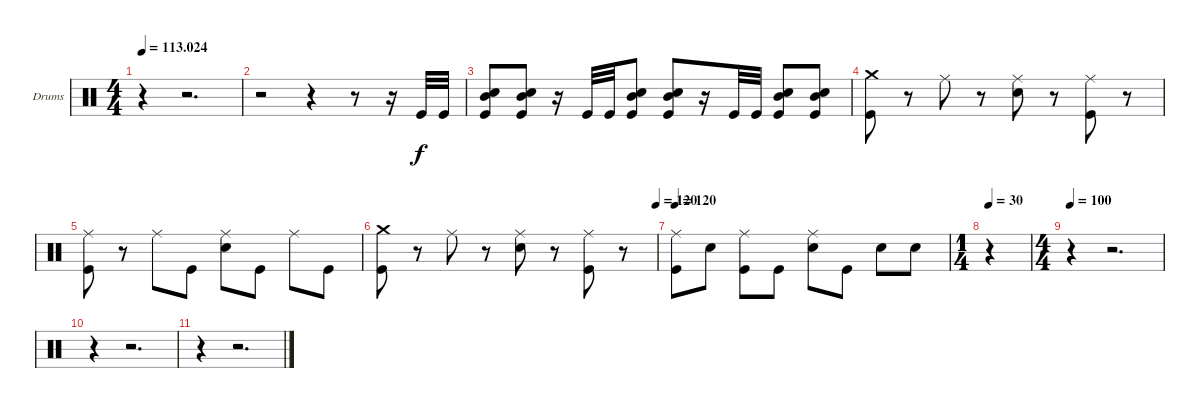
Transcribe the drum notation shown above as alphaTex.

\bracketExtendMode groupsimilarinstruments
\firstSystemTrackNameOrientation horizontal
\otherSystemsTrackNameOrientation horizontal
\track ("Ударные (Кривенков Д)" "Drums") {instrument percussion}
\staff {score}
\articulation defaults
\voice
\ts (4 4)
\tempo
113.024
\accidentals auto
\clef neutral
\ottava regular
\simile none
\ks c
r.4{dy f} r.2{d} |
r.2 r.4 r.8 r.16 "Kick (hit)".32 "Kick (hit)".32 |
("Mid Tom (hit)" "Snare (hit) 2" "Kick (hit)").8 ("Mid Tom (hit)" "Snare (hit) 2" "Kick (hit)").8 r.16 "Kick (hit)".32 "Kick (hit)".32 ("Mid Tom (hit)" "Snare (hit) 2" "Kick (hit)").8 ("Mid Tom (hit)" "Snare (hit) 2" "Kick (hit)").8 r.16 "Kick (hit)".32 "Kick (hit)".32 ("Mid Tom (hit)" "Snare (hit) 2" "Kick (hit)").8 ("Mid Tom (hit)" "Snare (hit) 2" "Kick (hit)").8 |
("Crash medium (hit)" "Kick (hit)").8 r.8 "Ride (middle)".8 r.8 ("Ride (middle)" "Snare (hit) 2").8 r.8 ("Ride (middle)" "Kick (hit)").8 r.8 |
("Ride (middle)" "Kick (hit)").8 r.8 "Ride (middle)".8 "Kick (hit)".8 ("Ride (middle)" "Snare (hit) 2").8 "Kick (hit)".8 "Ride (middle)".8 "Kick (hit)".8 |
\tempo (120 1)
("Crash medium (hit)" "Kick (hit)").8 r.8 "Ride (middle)".8 r.8 ("Ride (middle)" "Snare (hit) 2").8 r.8 ("Ride (middle)" "Kick (hit)").8 r.8 |
\tempo 120
("Ride (middle)" "Kick (hit)").8 "Snare (hit) 2".8 ("Ride (middle)" "Kick (hit)").8 "Kick (hit)".8 ("Ride (middle)" "Snare (hit) 2").8 "Kick (hit)".8 "Snare (hit) 2".8 "Snare (hit) 2".8 |
\ts (1 4)
\beaming (8 2)
\tempo 30
r.4 |
\ts (4 4)
\beaming (8 2 2 2 2)
\tempo 100
r.4 r.2{d} |
r.4 r.2{d} |
r.4 r.2{d}
\voice
\clef neutral
\ottava regular
\simile none
\ks c
|
|
|
|
|
|
|
r.4{dy mf} |
|
|
